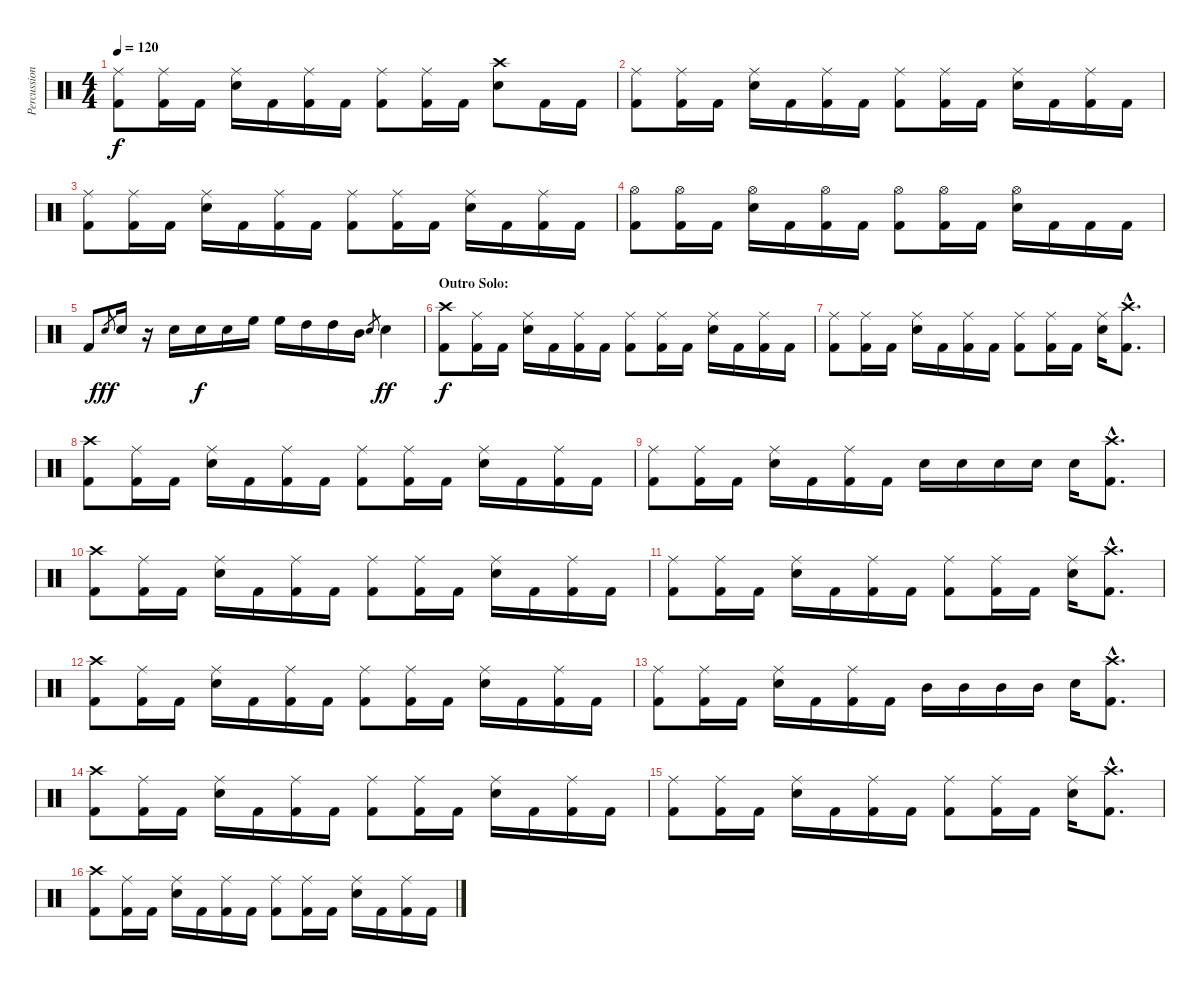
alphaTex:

\track ("Percussion" "Percussion") {instrument percussion}
\staff {score}
\articulation defaults
\ts (4 4)
\tempo 120
\clef neutral
\ks c
("Ride (middle)" "Kick (hit) 2").8{dy f} ("Ride (middle)" "Kick (hit) 2").16 "Kick (hit) 2".16 ("Ride (middle)" "Electric Snare (hit)").16 "Kick (hit) 2".16 ("Ride (middle)" "Kick (hit) 2").16 "Kick (hit) 2".16 ("Ride (middle)" "Kick (hit) 2").8 ("Ride (middle)" "Kick (hit) 2").16 "Kick (hit) 2".16 ("Crash high (hit)" "Electric Snare (hit)").8 "Kick (hit) 2".16 "Kick (hit) 2".16 |
("Ride (middle)" "Kick (hit) 2").8 ("Ride (middle)" "Kick (hit) 2").16 "Kick (hit) 2".16 ("Ride (middle)" "Electric Snare (hit)").16 "Kick (hit) 2".16 ("Ride (middle)" "Kick (hit) 2").16 "Kick (hit) 2".16 ("Ride (middle)" "Kick (hit) 2").8 ("Ride (middle)" "Kick (hit) 2").16 "Kick (hit) 2".16 ("Ride (middle)" "Electric Snare (hit)").16 "Kick (hit) 2".16 ("Ride (middle)" "Kick (hit) 2").16 "Kick (hit) 2".16 |
("Ride (middle)" "Kick (hit) 2").8 ("Ride (middle)" "Kick (hit) 2").16 "Kick (hit) 2".16 ("Ride (middle)" "Electric Snare (hit)").16 "Kick (hit) 2".16 ("Ride (middle)" "Kick (hit) 2").16 "Kick (hit) 2".16 ("Ride (middle)" "Kick (hit) 2").8 ("Ride (middle)" "Kick (hit) 2").16 "Kick (hit) 2".16 ("Ride (middle)" "Electric Snare (hit)").16 "Kick (hit) 2".16 ("Ride (middle)" "Kick (hit) 2").16 "Kick (hit) 2".16 |
("Hi-Hat (open)" "Kick (hit) 2").8 ("Hi-Hat (open)" "Kick (hit) 2").16 "Kick (hit) 2".16 ("Hi-Hat (open)" "Electric Snare (hit)").16 "Kick (hit) 2".16 ("Hi-Hat (open)" "Kick (hit) 2").16 "Kick (hit) 2".16 ("Hi-Hat (open)" "Kick (hit) 2").8 ("Hi-Hat (open)" "Kick (hit) 2").16 "Kick (hit) 2".16 ("Hi-Hat (open)" "Electric Snare (hit)").16 "Kick (hit) 2".16 "Kick (hit) 2".16 "Kick (hit) 2".16 |
"Kick (hit) 2".8 "Electric Snare (hit)".8{gr dy fff} "Electric Snare (hit)".16 r.16 "Electric Snare (hit)".16 "Electric Snare (hit)".16{dy f} "Electric Snare (hit)".16 "High Floor Tom (hit)".16 "High Floor Tom (hit)".16 "High Tom (hit)".16 "High Tom (hit)".16 "Mid Tom (hit)".16 "Electric Snare (hit)".8{gr} "Electric Snare (hit)".4{dy ff} |
\section ("" "Outro Solo:")
("Crash high (hit)" "Kick (hit) 2").8{dy f} ("Ride (middle)" "Kick (hit) 2").16 "Kick (hit) 2".16 ("Ride (middle)" "Electric Snare (hit)").16 "Kick (hit) 2".16 ("Ride (middle)" "Kick (hit) 2").16 "Kick (hit) 2".16 ("Ride (middle)" "Kick (hit) 2").8 ("Ride (middle)" "Kick (hit) 2").16 "Kick (hit) 2".16 ("Ride (middle)" "Electric Snare (hit)").16 "Kick (hit) 2".16 ("Ride (middle)" "Kick (hit) 2").16 "Kick (hit) 2".16 |
("Ride (middle)" "Kick (hit) 2").8 ("Ride (middle)" "Kick (hit) 2").16 "Kick (hit) 2".16 ("Ride (middle)" "Electric Snare (hit)").16 "Kick (hit) 2".16 ("Ride (middle)" "Kick (hit) 2").16 "Kick (hit) 2".16 ("Ride (middle)" "Kick (hit) 2").8 ("Ride (middle)" "Kick (hit) 2").16 "Kick (hit) 2".16 ("Ride (middle)" "Electric Snare (hit)").16 ("Crash high (hit)"{hac} "Kick (hit) 2"{hac}).8{d} |
("Crash high (hit)" "Kick (hit) 2").8 ("Ride (middle)" "Kick (hit) 2").16 "Kick (hit) 2".16 ("Ride (middle)" "Electric Snare (hit)").16 "Kick (hit) 2".16 ("Ride (middle)" "Kick (hit) 2").16 "Kick (hit) 2".16 ("Ride (middle)" "Kick (hit) 2").8 ("Ride (middle)" "Kick (hit) 2").16 "Kick (hit) 2".16 ("Ride (middle)" "Electric Snare (hit)").16 "Kick (hit) 2".16 ("Ride (middle)" "Kick (hit) 2").16 "Kick (hit) 2".16 |
("Ride (middle)" "Kick (hit) 2").8 ("Ride (middle)" "Kick (hit) 2").16 "Kick (hit) 2".16 ("Ride (middle)" "Electric Snare (hit)").16 "Kick (hit) 2".16 ("Ride (middle)" "Kick (hit) 2").16 "Kick (hit) 2".16 "Electric Snare (hit)".16 "Electric Snare (hit)".16 "Electric Snare (hit)".16 "Electric Snare (hit)".16 "Electric Snare (hit)".16 ("Crash high (hit)"{hac} "Kick (hit) 2"{hac}).8{d} |
("Crash high (hit)" "Kick (hit) 2").8 ("Ride (middle)" "Kick (hit) 2").16 "Kick (hit) 2".16 ("Ride (middle)" "Electric Snare (hit)").16 "Kick (hit) 2".16 ("Ride (middle)" "Kick (hit) 2").16 "Kick (hit) 2".16 ("Ride (middle)" "Kick (hit) 2").8 ("Ride (middle)" "Kick (hit) 2").16 "Kick (hit) 2".16 ("Ride (middle)" "Electric Snare (hit)").16 "Kick (hit) 2".16 ("Ride (middle)" "Kick (hit) 2").16 "Kick (hit) 2".16 |
("Ride (middle)" "Kick (hit) 2").8 ("Ride (middle)" "Kick (hit) 2").16 "Kick (hit) 2".16 ("Ride (middle)" "Electric Snare (hit)").16 "Kick (hit) 2".16 ("Ride (middle)" "Kick (hit) 2").16 "Kick (hit) 2".16 ("Ride (middle)" "Kick (hit) 2").8 ("Ride (middle)" "Kick (hit) 2").16 "Kick (hit) 2".16 ("Ride (middle)" "Electric Snare (hit)").16 ("Crash high (hit)"{hac} "Kick (hit) 2"{hac}).8{d} |
("Crash high (hit)" "Kick (hit) 2").8 ("Ride (middle)" "Kick (hit) 2").16 "Kick (hit) 2".16 ("Ride (middle)" "Electric Snare (hit)").16 "Kick (hit) 2".16 ("Ride (middle)" "Kick (hit) 2").16 "Kick (hit) 2".16 ("Ride (middle)" "Kick (hit) 2").8 ("Ride (middle)" "Kick (hit) 2").16 "Kick (hit) 2".16 ("Ride (middle)" "Electric Snare (hit)").16 "Kick (hit) 2".16 ("Ride (middle)" "Kick (hit) 2").16 "Kick (hit) 2".16 |
("Ride (middle)" "Kick (hit) 2").8 ("Ride (middle)" "Kick (hit) 2").16 "Kick (hit) 2".16 ("Ride (middle)" "Electric Snare (hit)").16 "Kick (hit) 2".16 ("Ride (middle)" "Kick (hit) 2").16 "Kick (hit) 2".16 "Mid Tom (hit)".16 "Mid Tom (hit)".16 "Mid Tom (hit)".16 "Mid Tom (hit)".16 "Electric Snare (hit)".16 ("Crash high (hit)"{hac} "Kick (hit) 2"{hac}).8{d} |
("Crash high (hit)" "Kick (hit) 2").8 ("Ride (middle)" "Kick (hit) 2").16 "Kick (hit) 2".16 ("Ride (middle)" "Electric Snare (hit)").16 "Kick (hit) 2".16 ("Ride (middle)" "Kick (hit) 2").16 "Kick (hit) 2".16 ("Ride (middle)" "Kick (hit) 2").8 ("Ride (middle)" "Kick (hit) 2").16 "Kick (hit) 2".16 ("Ride (middle)" "Electric Snare (hit)").16 "Kick (hit) 2".16 ("Ride (middle)" "Kick (hit) 2").16 "Kick (hit) 2".16 |
("Ride (middle)" "Kick (hit) 2").8 ("Ride (middle)" "Kick (hit) 2").16 "Kick (hit) 2".16 ("Ride (middle)" "Electric Snare (hit)").16 "Kick (hit) 2".16 ("Ride (middle)" "Kick (hit) 2").16 "Kick (hit) 2".16 ("Ride (middle)" "Kick (hit) 2").8 ("Ride (middle)" "Kick (hit) 2").16 "Kick (hit) 2".16 ("Ride (middle)" "Electric Snare (hit)").16 ("Crash high (hit)"{hac} "Kick (hit) 2"{hac}).8{d} |
("Crash high (hit)" "Kick (hit) 2").8 ("Ride (middle)" "Kick (hit) 2").16 "Kick (hit) 2".16 ("Ride (middle)" "Electric Snare (hit)").16 "Kick (hit) 2".16 ("Ride (middle)" "Kick (hit) 2").16 "Kick (hit) 2".16 ("Ride (middle)" "Kick (hit) 2").8 ("Ride (middle)" "Kick (hit) 2").16 "Kick (hit) 2".16 ("Ride (middle)" "Electric Snare (hit)").16 "Kick (hit) 2".16 ("Ride (middle)" "Kick (hit) 2").16 "Kick (hit) 2".16
